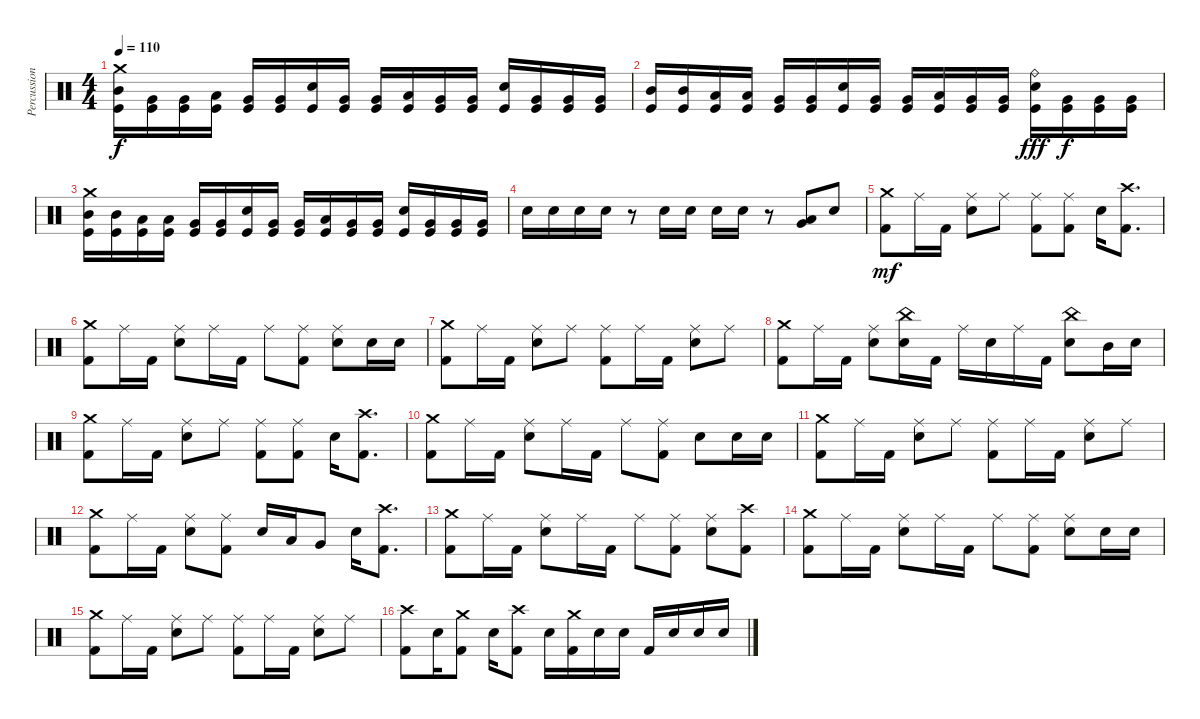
\track ("Percussion" "Percussion") {instrument percussion}
\staff {score}
\articulation defaults
\ts (4 4)
\tempo 110
\clef neutral
\ks c
("Crash medium (hit)" "Mid Tom (hit)" "Kick (hit)").16{dy f} ("Very Low Tom (hit)" "Kick (hit)").16 ("Very Low Tom (hit)" "Kick (hit)").16 ("Low Tom (hit)" "Kick (hit)").16 ("Very Low Tom (hit)" "Kick (hit)").16 ("Very Low Tom (hit)" "Kick (hit)").16 ("Electric Snare (hit)" "Kick (hit)").16 ("Very Low Tom (hit)" "Kick (hit)").16 ("Very Low Tom (hit)" "Kick (hit)").16 ("Low Tom (hit)" "Kick (hit)").16 ("Very Low Tom (hit)" "Kick (hit)").16 ("Very Low Tom (hit)" "Kick (hit)").16 ("Electric Snare (hit)" "Kick (hit)").16 ("Very Low Tom (hit)" "Kick (hit)").16 ("Very Low Tom (hit)" "Kick (hit)").16 ("Very Low Tom (hit)" "Kick (hit)").16 |
("Mid Tom (hit)" "Kick (hit)").16 ("Mid Tom (hit)" "Kick (hit)").16 ("Low Tom (hit)" "Kick (hit)").16 ("Low Tom (hit)" "Kick (hit)").16 ("Very Low Tom (hit)" "Kick (hit)").16 ("Very Low Tom (hit)" "Kick (hit)").16 ("Electric Snare (hit)" "Kick (hit)").16 ("Very Low Tom (hit)" "Kick (hit)").16 ("Very Low Tom (hit)" "Kick (hit)").16 ("Low Tom (hit)" "Kick (hit)").16 ("Very Low Tom (hit)" "Kick (hit)").16 ("Very Low Tom (hit)" "Kick (hit)").16 ("Ride (bell)" "Electric Snare (hit)" "Kick (hit)").16{dy fff} ("Very Low Tom (hit)" "Kick (hit)").16{dy f} ("Very Low Tom (hit)" "Kick (hit)").16 ("Very Low Tom (hit)" "Kick (hit)").16 |
("Crash medium (hit)" "Mid Tom (hit)" "Kick (hit)").16 ("Mid Tom (hit)" "Kick (hit)").16 ("Low Tom (hit)" "Kick (hit)").16 ("Low Tom (hit)" "Kick (hit)").16 ("Very Low Tom (hit)" "Kick (hit)").16 ("Very Low Tom (hit)" "Kick (hit)").16 ("Electric Snare (hit)" "Kick (hit)").16 ("Very Low Tom (hit)" "Kick (hit)").16 ("Very Low Tom (hit)" "Kick (hit)").16 ("Low Tom (hit)" "Kick (hit)").16 ("Very Low Tom (hit)" "Kick (hit)").16 ("Very Low Tom (hit)" "Kick (hit)").16 ("Electric Snare (hit)" "Kick (hit)").16 ("Very Low Tom (hit)" "Kick (hit)").16 ("Very Low Tom (hit)" "Kick (hit)").16 ("Very Low Tom (hit)" "Kick (hit)").16 |
"Electric Snare (hit)".16 "Electric Snare (hit)".16 "Electric Snare (hit)".16 "Electric Snare (hit)".16 r.8 "Electric Snare (hit)".16 "Electric Snare (hit)".16 "Electric Snare (hit)".16 "Electric Snare (hit)".16 r.8 ("Low Tom (hit)" "Very Low Tom (hit)").8 "Electric Snare (hit)".8 |
("Crash medium (hit)" "Kick (hit) 2").8{dy mf} "Ride (middle)".16 "Kick (hit) 2".16 ("Ride (middle)" "Electric Snare (hit)").8 "Ride (middle)".8 ("Ride (middle)" "Kick (hit) 2").8 ("Ride (middle)" "Kick (hit) 2").8 "Electric Snare (hit)".16 ("Crash high (hit)" "Kick (hit) 2").8{d} |
("Crash medium (hit)" "Kick (hit) 2").8 "Ride (middle)".16 "Kick (hit) 2".16 ("Ride (middle)" "Electric Snare (hit)").8 "Ride (middle)".16 "Kick (hit) 2".16 "Ride (middle)".8 ("Ride (middle)" "Kick (hit) 2").8 ("Ride (middle)" "Electric Snare (hit)").8 "Electric Snare (hit)".16 "Electric Snare (hit)".16 |
("Crash medium (hit)" "Kick (hit) 2").8 "Ride (middle)".16 "Kick (hit) 2".16 ("Ride (middle)" "Electric Snare (hit)").8 "Ride (middle)".8 ("Ride (middle)" "Kick (hit) 2").8 "Ride (middle)".16 "Kick (hit) 2".16 ("Ride (middle)" "Electric Snare (hit)").8 "Ride (middle)".8 |
("Crash medium (hit)" "Kick (hit) 2").8 "Ride (middle)".16 "Kick (hit) 2".16 ("Ride (middle)" "Electric Snare (hit)").8 ("China (hit)" "Electric Snare (hit)").16 "Kick (hit) 2".16 "Ride (middle)".16 "Electric Snare (hit)".16 "Ride (middle)".16 "Kick (hit) 2".16 ("China (hit)" "Electric Snare (hit)").8 "Mid Tom (hit)".16 "Electric Snare (hit)".16 |
("Crash medium (hit)" "Kick (hit) 2").8 "Ride (middle)".16 "Kick (hit) 2".16 ("Ride (middle)" "Electric Snare (hit)").8 "Ride (middle)".8 ("Ride (middle)" "Kick (hit) 2").8 ("Ride (middle)" "Kick (hit) 2").8 "Electric Snare (hit)".16 ("Crash high (hit)" "Kick (hit) 2").8{d} |
("Crash medium (hit)" "Kick (hit) 2").8 "Ride (middle)".16 "Kick (hit) 2".16 ("Ride (middle)" "Electric Snare (hit)").8 "Ride (middle)".16 "Kick (hit) 2".16 "Ride (middle)".8 ("Ride (middle)" "Kick (hit) 2").8 "Electric Snare (hit)".8 "Electric Snare (hit)".16 "Electric Snare (hit)".16 |
("Crash medium (hit)" "Kick (hit) 2").8 "Ride (middle)".16 "Kick (hit) 2".16 ("Ride (middle)" "Electric Snare (hit)").8 "Ride (middle)".8 ("Ride (middle)" "Kick (hit) 2").8 "Ride (middle)".16 "Kick (hit) 2".16 ("Ride (middle)" "Electric Snare (hit)").8 "Ride (middle)".8 |
("Crash medium (hit)" "Kick (hit) 2").8 "Ride (middle)".16 "Kick (hit) 2".16 ("Ride (middle)" "Electric Snare (hit)").8 ("Ride (middle)" "Kick (hit) 2").8 "Electric Snare (hit)".16 "Low Tom (hit)".16 "Very Low Tom (hit)".8 "Electric Snare (hit)".16 ("Crash high (hit)" "Kick (hit) 2").8{d} |
("Crash medium (hit)" "Kick (hit) 2").8 "Ride (middle)".16 "Kick (hit) 2".16 ("Ride (middle)" "Electric Snare (hit)").8 "Ride (middle)".16 "Kick (hit) 2".16 "Ride (middle)".8 ("Ride (middle)" "Kick (hit) 2").8 ("Ride (middle)" "Electric Snare (hit)").8 ("Crash high (hit)" "Kick (hit) 2").8 |
("Crash medium (hit)" "Kick (hit) 2").8 "Ride (middle)".16 "Kick (hit) 2".16 ("Ride (middle)" "Electric Snare (hit)").8 "Ride (middle)".16 "Kick (hit) 2".16 "Ride (middle)".8 ("Ride (middle)" "Kick (hit) 2").8 ("Ride (middle)" "Electric Snare (hit)").8 "Electric Snare (hit)".16 "Electric Snare (hit)".16 |
("Crash medium (hit)" "Kick (hit) 2").8 "Ride (middle)".16 "Kick (hit) 2".16 ("Ride (middle)" "Electric Snare (hit)").8 "Ride (middle)".8 ("Ride (middle)" "Kick (hit) 2").8 "Ride (middle)".16 "Kick (hit) 2".16 ("Ride (middle)" "Electric Snare (hit)").8 "Ride (middle)".8 |
("Crash high (hit)" "Kick (hit) 2").8 "Electric Snare (hit)".16 ("Crash medium (hit)" "Kick (hit) 2").8 "Electric Snare (hit)".16 ("Crash high (hit)" "Kick (hit) 2").8 "Electric Snare (hit)".16 ("Crash medium (hit)" "Kick (hit) 2").16 "Electric Snare (hit)".16 "Electric Snare (hit)".16 "Kick (hit) 2".16 "Electric Snare (hit)".16 "Electric Snare (hit)".16 "Electric Snare (hit)".16
